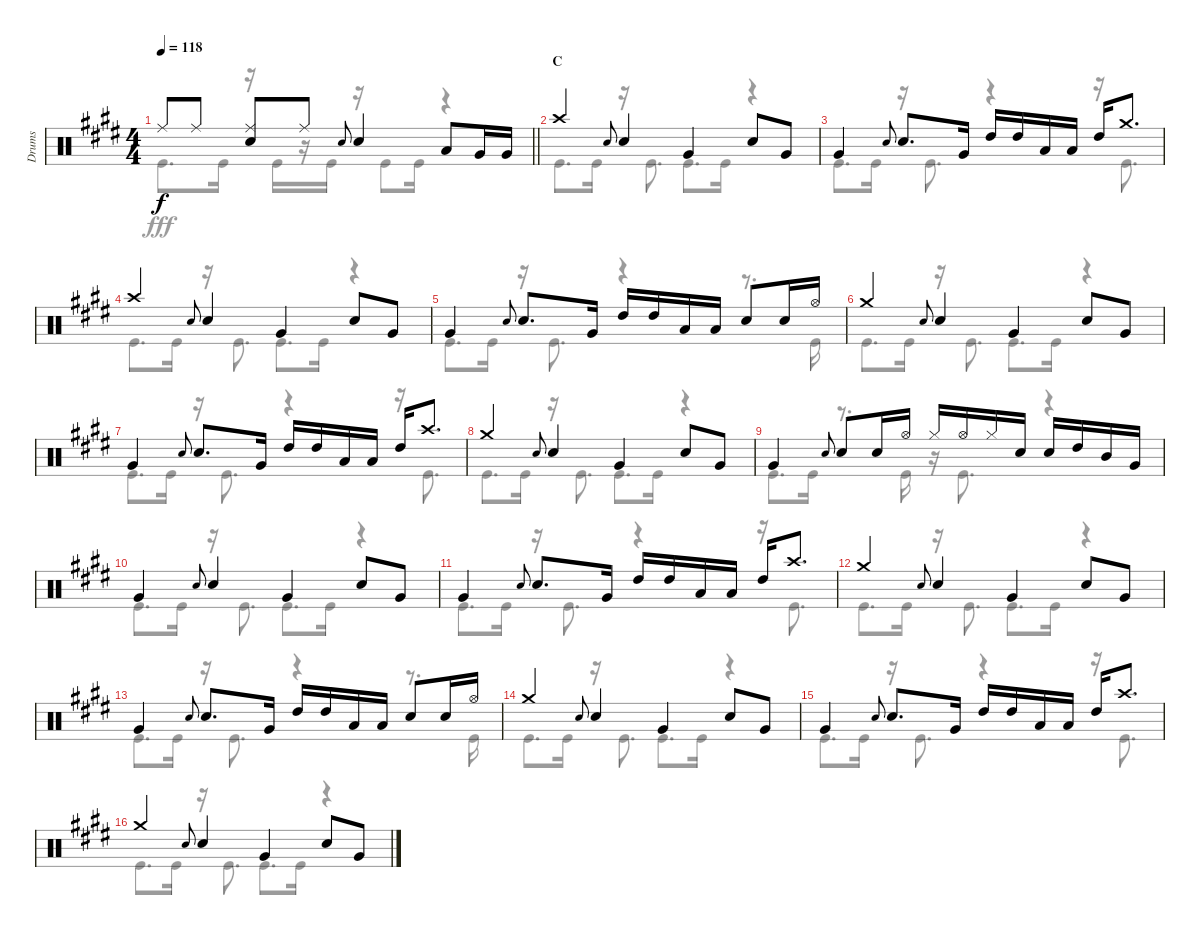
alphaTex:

\track ("Drums" "Drums") {instrument percussion}
\staff {score}
\articulation defaults
\voice
\ts (4 4)
\tempo 118
\clef neutral
\barLineRight lightlight
\ks e "Ride (middle)".8{dy f} "Ride (middle)".8
("Ride (middle)" "Snare (hit) 2").8 "Ride (middle)".8 "Snare (hit) 2".8{gr onbeat} "Snare (hit) 2".4 "Low Tom (hit)".8 "Very Low Tom (hit)".16 "Very Low Tom (hit)".16 |
\section ("" "C")
"Crash high (hit)".4 "Snare (hit) 2".8{gr onbeat} "Snare (hit) 2".4 "Very Low Tom (hit)".4 "Snare (hit) 2".8 "Very Low Tom (hit)".8 |
"Very Low Tom (hit)".4 "Snare (hit) 2".8{gr onbeat} "Snare (hit) 2".8{d} "Very Low Tom (hit)".16 "High Tom (hit)".16 "High Tom (hit)".16 "Low Tom (hit)".16 "Low Tom (hit)".16 "High Tom (hit)".16 "Crash medium (hit)".8{d} |
"Crash high (hit)".4 "Snare (hit) 2".8{gr onbeat} "Snare (hit) 2".4 "Very Low Tom (hit)".4 "Snare (hit) 2".8 "Very Low Tom (hit)".8 |
"Very Low Tom (hit)".4 "Snare (hit) 2".8{gr onbeat} "Snare (hit) 2".8{d} "Very Low Tom (hit)".16 "High Tom (hit)".16 "High Tom (hit)".16 "Low Tom (hit)".16 "Low Tom (hit)".16 "Snare (hit) 2".8 "Snare (hit) 2".16 "Hi-Hat (open)".16 |
"Crash medium (hit)".4 "Snare (hit) 2".8{gr onbeat} "Snare (hit) 2".4 "Very Low Tom (hit)".4 "Snare (hit) 2".8 "Very Low Tom (hit)".8 |
"Very Low Tom (hit)".4 "Snare (hit) 2".8{gr onbeat} "Snare (hit) 2".8{d} "Very Low Tom (hit)".16 "High Tom (hit)".16 "High Tom (hit)".16 "Low Tom (hit)".16 "Low Tom (hit)".16 "High Tom (hit)".16 "Crash high (hit)".8{d} |
"Crash medium (hit)".4 "Snare (hit) 2".8{gr onbeat} "Snare (hit) 2".4 "Very Low Tom (hit)".4 "Snare (hit) 2".8 "Very Low Tom (hit)".8 |
"Very Low Tom (hit)".4 "Snare (hit) 2".8{gr onbeat} "Snare (hit) 2".8 "Snare (hit) 2".16 "Hi-Hat (open)".16 "Hi-Hat (closed)".16 "Hi-Hat (open)".16 "Hi-Hat (closed)".16 "Snare (hit) 2".16 "Snare (hit) 2".16 "High Tom (hit)".16 "Mid Tom (hit)".16 "Very Low Tom (hit)".16 |
"Very Low Tom (hit)".4 "Snare (hit) 2".8{gr onbeat} "Snare (hit) 2".4 "Very Low Tom (hit)".4 "Snare (hit) 2".8 "Very Low Tom (hit)".8 |
"Very Low Tom (hit)".4 "Snare (hit) 2".8{gr onbeat} "Snare (hit) 2".8{d} "Very Low Tom (hit)".16 "High Tom (hit)".16 "High Tom (hit)".16 "Low Tom (hit)".16 "Low Tom (hit)".16 "High Tom (hit)".16 "Crash high (hit)".8{d} |
"Crash medium (hit)".4 "Snare (hit) 2".8{gr onbeat} "Snare (hit) 2".4 "Very Low Tom (hit)".4 "Snare (hit) 2".8 "Very Low Tom (hit)".8 |
"Very Low Tom (hit)".4 "Snare (hit) 2".8{gr onbeat} "Snare (hit) 2".8{d} "Very Low Tom (hit)".16 "High Tom (hit)".16 "High Tom (hit)".16 "Low Tom (hit)".16 "Low Tom (hit)".16 "Snare (hit) 2".8 "Snare (hit) 2".16 "Hi-Hat (open)".16 |
"Crash medium (hit)".4 "Snare (hit) 2".8{gr onbeat} "Snare (hit) 2".4 "Very Low Tom (hit)".4 "Snare (hit) 2".8 "Very Low Tom (hit)".8 |
"Very Low Tom (hit)".4 "Snare (hit) 2".8{gr onbeat} "Snare (hit) 2".8{d} "Very Low Tom (hit)".16 "High Tom (hit)".16 "High Tom (hit)".16 "Low Tom (hit)".16 "Low Tom (hit)".16 "High Tom (hit)".16 "Crash high (hit)".8{d} |
"Crash medium (hit)".4 "Snare (hit) 2".8{gr onbeat} "Snare (hit) 2".4 "Very Low Tom (hit)".4 "Snare (hit) 2".8 "Very Low Tom (hit)".8
\voice
\clef neutral
\ottava regular
\simile none
\barLineRight lightlight
\ks e "Kick (hit)".8{d dy fff} "Kick (hit)".16
r.16 "Kick (hit)".16 r.16 "Kick (hit)".16 r.16 "Kick (hit)".8 "Kick (hit)".16 r.4 |
"Kick (hit)".8{d} "Kick (hit)".16 r.16 "Kick (hit)".8{d} "Kick (hit)".8{d} "Kick (hit)".16 r.4 |
"Kick (hit)".8{d} "Kick (hit)".16 r.16 "Kick (hit)".8{d} r.4 r.16 "Kick (hit)".8{d} |
"Kick (hit)".8{d} "Kick (hit)".16 r.16 "Kick (hit)".8{d} "Kick (hit)".8{d} "Kick (hit)".16 r.4 |
"Kick (hit)".8{d} "Kick (hit)".16 r.16 "Kick (hit)".8{d} r.4 r.8{d} "Kick (hit)".16 |
"Kick (hit)".8{d} "Kick (hit)".16 r.16 "Kick (hit)".8{d} "Kick (hit)".8{d} "Kick (hit)".16 r.4 |
"Kick (hit)".8{d} "Kick (hit)".16 r.16 "Kick (hit)".8{d} r.4 r.16 "Kick (hit)".8{d} |
"Kick (hit)".8{d} "Kick (hit)".16 r.16 "Kick (hit)".8{d} "Kick (hit)".8{d} "Kick (hit)".16 r.4 |
"Kick (hit)".8{d} "Kick (hit)".16 r.8{d} "Kick (hit)".16 r.16 "Kick (hit)".8{d} r.4 |
"Kick (hit)".8{d} "Kick (hit)".16 r.16 "Kick (hit)".8{d} "Kick (hit)".8{d} "Kick (hit)".16 r.4 |
"Kick (hit)".8{d} "Kick (hit)".16 r.16 "Kick (hit)".8{d} r.4 r.16 "Kick (hit)".8{d} |
"Kick (hit)".8{d} "Kick (hit)".16 r.16 "Kick (hit)".8{d} "Kick (hit)".8{d} "Kick (hit)".16 r.4 |
"Kick (hit)".8{d} "Kick (hit)".16 r.16 "Kick (hit)".8{d} r.4 r.8{d} "Kick (hit)".16 |
"Kick (hit)".8{d} "Kick (hit)".16 r.16 "Kick (hit)".8{d} "Kick (hit)".8{d} "Kick (hit)".16 r.4 |
"Kick (hit)".8{d} "Kick (hit)".16 r.16 "Kick (hit)".8{d} r.4 r.16 "Kick (hit)".8{d} |
"Kick (hit)".8{d} "Kick (hit)".16 r.16 "Kick (hit)".8{d} "Kick (hit)".8{d} "Kick (hit)".16 r.4
